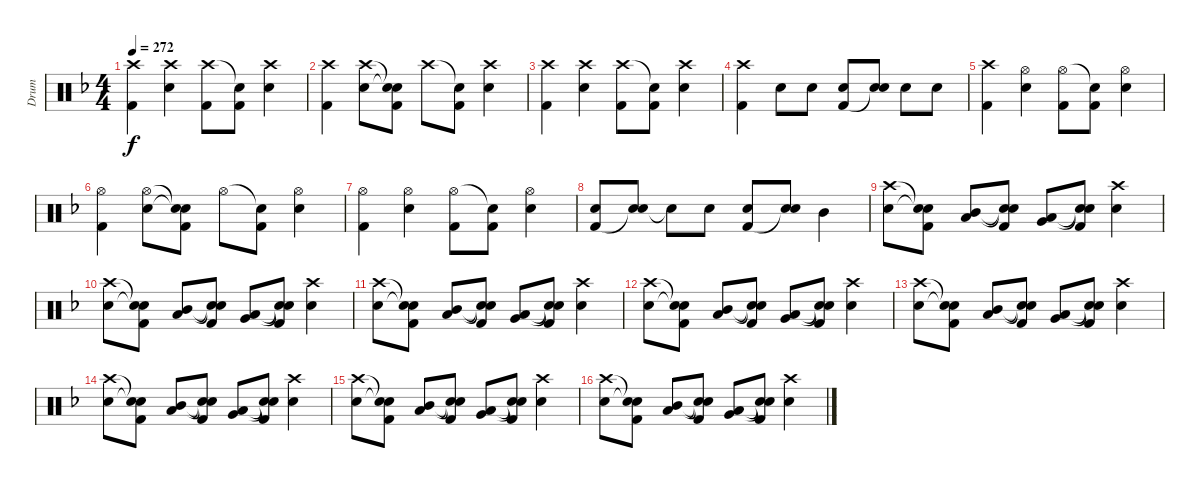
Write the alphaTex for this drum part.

\track ("Drum" "Drum") {instrument percussion}
\staff {score}
\articulation defaults
\ts (4 4)
\tempo 272
\clef neutral
\ks f
("Crash high (hit)" "Kick (hit) 2").4{dy f} ("Crash high (hit)" "Electric Snare (hit)").4 ("Crash high (hit)" "Kick (hit) 2").8 ("Snare (hit)"{t} "Kick (hit) 2").8 ("Crash high (hit)" "Electric Snare (hit)").4 |
("Crash high (hit)" "Kick (hit) 2").4 ("Crash high (hit)" "Electric Snare (hit)").8 ("Snare (hit)"{t} "Snare (hit)"{t} "Kick (hit) 2").8 "Crash high (hit)".8 ("Snare (hit)"{t} "Kick (hit) 2").8 ("Crash high (hit)" "Electric Snare (hit)").4 |
("Crash high (hit)" "Kick (hit) 2").4 ("Crash high (hit)" "Electric Snare (hit)").4 ("Crash high (hit)" "Kick (hit) 2").8 ("Snare (hit)"{t} "Kick (hit) 2").8 ("Crash high (hit)" "Electric Snare (hit)").4 |
("Crash high (hit)" "Kick (hit) 2").4 "Electric Snare (hit)".8 "Electric Snare (hit)".8 ("Electric Snare (hit)" "Kick (hit) 2").8 ("Electric Snare (hit)" "Snare (hit)"{t}).8 "Electric Snare (hit)".8 "Electric Snare (hit)".8 |
("Crash high (hit)" "Kick (hit) 2").4 ("Hi-Hat (open)" "Electric Snare (hit)").4 ("Hi-Hat (open)" "Kick (hit) 2").8 ("Snare (hit)"{t} "Kick (hit) 2").8 ("Hi-Hat (open)" "Electric Snare (hit)").4 |
("Hi-Hat (open)" "Kick (hit) 2").4 ("Hi-Hat (open)" "Electric Snare (hit)").8 ("Snare (hit)"{t} "Snare (hit)"{t} "Kick (hit) 2").8 "Hi-Hat (open)".8 ("Snare (hit)"{t} "Kick (hit) 2").8 ("Hi-Hat (open)" "Electric Snare (hit)").4 |
("Hi-Hat (open)" "Kick (hit) 2").4 ("Hi-Hat (open)" "Electric Snare (hit)").4 ("Hi-Hat (open)" "Kick (hit) 2").8 ("Snare (hit)"{t} "Kick (hit) 2").8 ("Hi-Hat (open)" "Electric Snare (hit)").4 |
("Electric Snare (hit)" "Kick (hit) 2").8 ("Electric Snare (hit)" "Snare (hit)"{t}).8 "Snare (hit)"{t}.8 "Electric Snare (hit)".8 ("Electric Snare (hit)" "Kick (hit) 2").8 ("Electric Snare (hit)" "Snare (hit)"{t}).8 "Mid Tom (hit)".4 |
("Crash high (hit)" "Electric Snare (hit)").8 ("Snare (hit)"{t} "Snare (hit)"{t} "Kick (hit) 2").8 ("Mid Tom (hit)" "Low Tom (hit)").8 ("Snare (hit)"{t} "Snare (hit)"{t} "Kick (hit) 2").8 ("Low Tom (hit)" "Very Low Tom (hit)").8 ("Snare (hit)"{t} "Snare (hit)"{t} "Kick (hit) 2").8 ("Crash high (hit)" "Electric Snare (hit)").4 |
("Crash high (hit)" "Electric Snare (hit)").8 ("Snare (hit)"{t} "Snare (hit)"{t} "Kick (hit) 2").8 ("Mid Tom (hit)" "Low Tom (hit)").8 ("Snare (hit)"{t} "Snare (hit)"{t} "Kick (hit) 2").8 ("Low Tom (hit)" "Very Low Tom (hit)").8 ("Snare (hit)"{t} "Snare (hit)"{t} "Kick (hit) 2").8 ("Crash high (hit)" "Electric Snare (hit)").4 |
("Crash high (hit)" "Electric Snare (hit)").8 ("Snare (hit)"{t} "Snare (hit)"{t} "Kick (hit) 2").8 ("Mid Tom (hit)" "Low Tom (hit)").8 ("Snare (hit)"{t} "Snare (hit)"{t} "Kick (hit) 2").8 ("Low Tom (hit)" "Very Low Tom (hit)").8 ("Snare (hit)"{t} "Snare (hit)"{t} "Kick (hit) 2").8 ("Crash high (hit)" "Electric Snare (hit)").4 |
("Crash high (hit)" "Electric Snare (hit)").8 ("Snare (hit)"{t} "Snare (hit)"{t} "Kick (hit) 2").8 ("Mid Tom (hit)" "Low Tom (hit)").8 ("Snare (hit)"{t} "Snare (hit)"{t} "Kick (hit) 2").8 ("Low Tom (hit)" "Very Low Tom (hit)").8 ("Snare (hit)"{t} "Snare (hit)"{t} "Kick (hit) 2").8 ("Crash high (hit)" "Electric Snare (hit)").4 |
("Crash high (hit)" "Electric Snare (hit)").8 ("Snare (hit)"{t} "Snare (hit)"{t} "Kick (hit) 2").8 ("Mid Tom (hit)" "Low Tom (hit)").8 ("Snare (hit)"{t} "Snare (hit)"{t} "Kick (hit) 2").8 ("Low Tom (hit)" "Very Low Tom (hit)").8 ("Snare (hit)"{t} "Snare (hit)"{t} "Kick (hit) 2").8 ("Crash high (hit)" "Electric Snare (hit)").4 |
("Crash high (hit)" "Electric Snare (hit)").8 ("Snare (hit)"{t} "Snare (hit)"{t} "Kick (hit) 2").8 ("Mid Tom (hit)" "Low Tom (hit)").8 ("Snare (hit)"{t} "Snare (hit)"{t} "Kick (hit) 2").8 ("Low Tom (hit)" "Very Low Tom (hit)").8 ("Snare (hit)"{t} "Snare (hit)"{t} "Kick (hit) 2").8 ("Crash high (hit)" "Electric Snare (hit)").4 |
("Crash high (hit)" "Electric Snare (hit)").8 ("Snare (hit)"{t} "Snare (hit)"{t} "Kick (hit) 2").8 ("Mid Tom (hit)" "Low Tom (hit)").8 ("Snare (hit)"{t} "Snare (hit)"{t} "Kick (hit) 2").8 ("Low Tom (hit)" "Very Low Tom (hit)").8 ("Snare (hit)"{t} "Snare (hit)"{t} "Kick (hit) 2").8 ("Crash high (hit)" "Electric Snare (hit)").4 |
("Crash high (hit)" "Electric Snare (hit)").8 ("Snare (hit)"{t} "Snare (hit)"{t} "Kick (hit) 2").8 ("Mid Tom (hit)" "Low Tom (hit)").8 ("Snare (hit)"{t} "Snare (hit)"{t} "Kick (hit) 2").8 ("Low Tom (hit)" "Very Low Tom (hit)").8 ("Snare (hit)"{t} "Snare (hit)"{t} "Kick (hit) 2").8 ("Crash high (hit)" "Electric Snare (hit)").4
